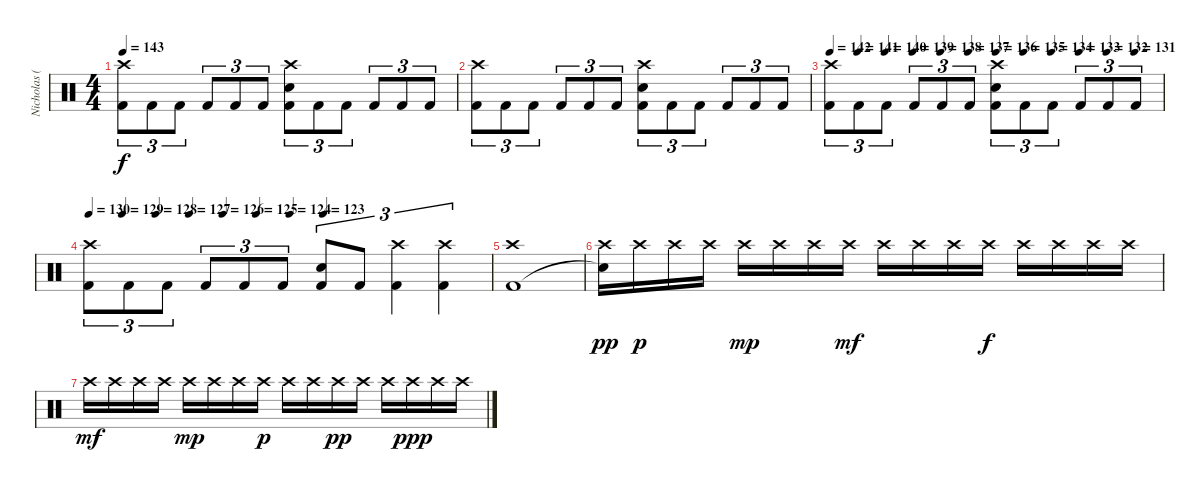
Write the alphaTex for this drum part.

\track ("Nicholas (Drums)" "Nicholas (") {instrument percussion}
\staff {score}
\articulation defaults
\ts (4 4)
\tempo 143
\clef neutral
\ks c
("Crash high (hit)" "Kick (hit) 2").8{tu (3 2) dy f} "Kick (hit) 2".8{tu (3 2)} "Kick (hit) 2".8{tu (3 2)} "Kick (hit) 2".8{tu (3 2)} "Kick (hit) 2".8{tu (3 2)} "Kick (hit) 2".8{tu (3 2)} ("Crash high (hit)" "Electric Snare (hit)" "Kick (hit) 2").8{tu (3 2)} "Kick (hit) 2".8{tu (3 2)} "Kick (hit) 2".8{tu (3 2)} "Kick (hit) 2".8{tu (3 2)} "Kick (hit) 2".8{tu (3 2)} "Kick (hit) 2".8{tu (3 2)} |
("Crash high (hit)" "Kick (hit) 2").8{tu (3 2)} "Kick (hit) 2".8{tu (3 2)} "Kick (hit) 2".8{tu (3 2)} "Kick (hit) 2".8{tu (3 2)} "Kick (hit) 2".8{tu (3 2)} "Kick (hit) 2".8{tu (3 2)} ("Crash high (hit)" "Electric Snare (hit)" "Kick (hit) 2").8{tu (3 2)} "Kick (hit) 2".8{tu (3 2)} "Kick (hit) 2".8{tu (3 2)} "Kick (hit) 2".8{tu (3 2)} "Kick (hit) 2".8{tu (3 2)} "Kick (hit) 2".8{tu (3 2)} |
\tempo 142
\tempo (141 0.08333333333333333)
\tempo (140 0.16666666666666666)
\tempo (139 0.25)
\tempo (138 0.3333333333333333)
\tempo (137 0.4166666666666667)
\tempo (136 0.5)
\tempo (135 0.5833333333333334)
\tempo (134 0.6666666666666666)
\tempo (133 0.75)
\tempo (132 0.8333333333333334)
\tempo (131 0.9166666666666666)
("Crash high (hit)" "Kick (hit) 2").8{tu (3 2)} "Kick (hit) 2".8{tu (3 2)} "Kick (hit) 2".8{tu (3 2)} "Kick (hit) 2".8{tu (3 2)} "Kick (hit) 2".8{tu (3 2)} "Kick (hit) 2".8{tu (3 2)} ("Crash high (hit)" "Electric Snare (hit)" "Kick (hit) 2").8{tu (3 2)} "Kick (hit) 2".8{tu (3 2)} "Kick (hit) 2".8{tu (3 2)} "Kick (hit) 2".8{tu (3 2)} "Kick (hit) 2".8{tu (3 2)} "Kick (hit) 2".8{tu (3 2)} |
\tempo 130
\tempo (129 0.08333333333333333)
\tempo (128 0.16666666666666666)
\tempo (127 0.25)
\tempo (126 0.3333333333333333)
\tempo (125 0.4166666666666667)
\tempo (124 0.5)
\tempo (123 0.5833333333333334)
("Crash high (hit)" "Kick (hit) 2").8{tu (3 2)} "Kick (hit) 2".8{tu (3 2)} "Kick (hit) 2".8{tu (3 2)} "Kick (hit) 2".8{tu (3 2)} "Kick (hit) 2".8{tu (3 2)} "Kick (hit) 2".8{tu (3 2)} ("Electric Snare (hit)" "Kick (hit) 2").8{tu (3 2)} "Kick (hit) 2".8{tu (3 2)} ("Crash high (hit)" "Kick (hit) 2").4{tu (3 2)} ("Crash high (hit)" "Kick (hit) 2").4{tu (3 2)} |
("Crash high (hit)" "Kick (hit) 2").1 |
("Crash high (hit)" "Snare (hit)"{t}).16{dy pp} "Crash high (hit)".16{dy p} "Crash high (hit)".16 "Crash high (hit)".16 "Crash high (hit)".16{dy mp} "Crash high (hit)".16 "Crash high (hit)".16 "Crash high (hit)".16{dy mf} "Crash high (hit)".16 "Crash high (hit)".16 "Crash high (hit)".16 "Crash high (hit)".16{dy f} "Crash high (hit)".16 "Crash high (hit)".16 "Crash high (hit)".16 "Crash high (hit)".16 |
"Crash high (hit)".16{dy mf} "Crash high (hit)".16 "Crash high (hit)".16 "Crash high (hit)".16 "Crash high (hit)".16{dy mp} "Crash high (hit)".16 "Crash high (hit)".16 "Crash high (hit)".16{dy p} "Crash high (hit)".16 "Crash high (hit)".16 "Crash high (hit)".16{dy pp} "Crash high (hit)".16 "Crash high (hit)".16 "Crash high (hit)".16{dy ppp} "Crash high (hit)".16 "Crash high (hit)".16
